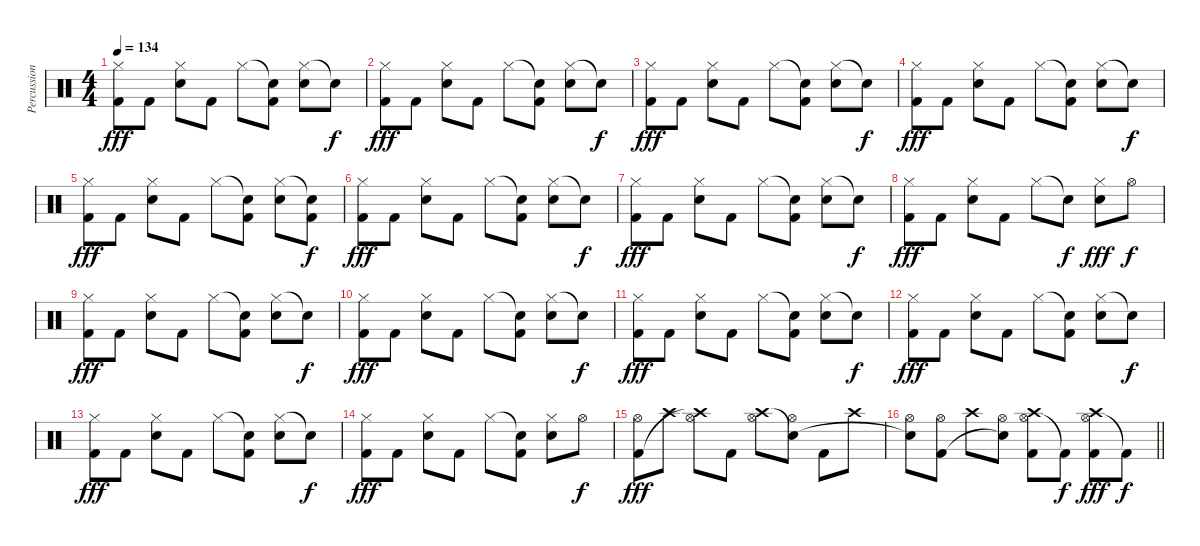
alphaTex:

\track ("Percussion" "Percussion") {instrument percussion}
\staff {score}
\articulation defaults
\ts (4 4)
\tempo 134
\clef neutral
\ks c
("Hi-Hat (closed)" "Kick (hit) 2").8{dy fff} "Kick (hit) 2".8 ("Hi-Hat (closed)" "Snare (hit) 2").8 "Kick (hit) 2".8 "Hi-Hat (closed)".8 ("Snare (hit)"{t} "Kick (hit) 2").8 ("Hi-Hat (closed)" "Snare (hit) 2").8 "Snare (hit)"{t}.8{dy f} |
("Hi-Hat (closed)" "Kick (hit) 2").8{dy fff} "Kick (hit) 2".8 ("Hi-Hat (closed)" "Snare (hit) 2").8 "Kick (hit) 2".8 "Hi-Hat (closed)".8 ("Snare (hit)"{t} "Kick (hit) 2").8 ("Hi-Hat (closed)" "Snare (hit) 2").8 "Snare (hit)"{t}.8{dy f} |
("Hi-Hat (closed)" "Kick (hit) 2").8{dy fff} "Kick (hit) 2".8 ("Hi-Hat (closed)" "Snare (hit) 2").8 "Kick (hit) 2".8 "Hi-Hat (closed)".8 ("Snare (hit)"{t} "Kick (hit) 2").8 ("Hi-Hat (closed)" "Snare (hit) 2").8 "Snare (hit)"{t}.8{dy f} |
("Hi-Hat (closed)" "Kick (hit) 2").8{dy fff} "Kick (hit) 2".8 ("Hi-Hat (closed)" "Snare (hit) 2").8 "Kick (hit) 2".8 "Hi-Hat (closed)".8 ("Snare (hit)"{t} "Kick (hit) 2").8 ("Hi-Hat (closed)" "Snare (hit) 2").8 "Snare (hit)"{t}.8{dy f} |
("Hi-Hat (closed)" "Kick (hit) 2").8{dy fff} "Kick (hit) 2".8 ("Hi-Hat (closed)" "Snare (hit) 2").8 "Kick (hit) 2".8 "Hi-Hat (closed)".8 ("Snare (hit)"{t} "Kick (hit) 2").8 ("Hi-Hat (closed)" "Snare (hit) 2").8 ("Snare (hit)"{t} "Kick (hit) 2").8{dy f} |
("Hi-Hat (closed)" "Kick (hit) 2").8{dy fff} "Kick (hit) 2".8 ("Hi-Hat (closed)" "Snare (hit) 2").8 "Kick (hit) 2".8 "Hi-Hat (closed)".8 ("Snare (hit)"{t} "Kick (hit) 2").8 ("Hi-Hat (closed)" "Snare (hit) 2").8 "Snare (hit)"{t}.8{dy f} |
("Hi-Hat (closed)" "Kick (hit) 2").8{dy fff} "Kick (hit) 2".8 ("Hi-Hat (closed)" "Snare (hit) 2").8 "Kick (hit) 2".8 "Hi-Hat (closed)".8 ("Snare (hit)"{t} "Kick (hit) 2").8 ("Hi-Hat (closed)" "Snare (hit) 2").8 "Snare (hit)"{t}.8{dy f} |
("Hi-Hat (closed)" "Kick (hit) 2").8{dy fff} "Kick (hit) 2".8 ("Hi-Hat (closed)" "Snare (hit) 2").8 "Kick (hit) 2".8 "Hi-Hat (closed)".8 "Snare (hit)"{t}.8{dy f} ("Hi-Hat (closed)" "Snare (hit) 2").8{dy fff} "Hi-Hat (open)".8{dy f} |
("Hi-Hat (closed)" "Kick (hit) 2").8{dy fff} "Kick (hit) 2".8 ("Hi-Hat (closed)" "Snare (hit) 2").8 "Kick (hit) 2".8 "Hi-Hat (closed)".8 ("Snare (hit)"{t} "Kick (hit) 2").8 ("Hi-Hat (closed)" "Snare (hit) 2").8 "Snare (hit)"{t}.8{dy f} |
("Hi-Hat (closed)" "Kick (hit) 2").8{dy fff} "Kick (hit) 2".8 ("Hi-Hat (closed)" "Snare (hit) 2").8 "Kick (hit) 2".8 "Hi-Hat (closed)".8 ("Snare (hit)"{t} "Kick (hit) 2").8 ("Hi-Hat (closed)" "Snare (hit) 2").8 "Snare (hit)"{t}.8{dy f} |
("Hi-Hat (closed)" "Kick (hit) 2").8{dy fff} "Kick (hit) 2".8 ("Hi-Hat (closed)" "Snare (hit) 2").8 "Kick (hit) 2".8 "Hi-Hat (closed)".8 ("Snare (hit)"{t} "Kick (hit) 2").8 ("Hi-Hat (closed)" "Snare (hit) 2").8 "Snare (hit)"{t}.8{dy f} |
("Hi-Hat (closed)" "Kick (hit) 2").8{dy fff} "Kick (hit) 2".8 ("Hi-Hat (closed)" "Snare (hit) 2").8 "Kick (hit) 2".8 "Hi-Hat (closed)".8 ("Snare (hit)"{t} "Kick (hit) 2").8 ("Hi-Hat (closed)" "Snare (hit) 2").8 "Snare (hit)"{t}.8{dy f} |
("Hi-Hat (closed)" "Kick (hit) 2").8{dy fff} "Kick (hit) 2".8 ("Hi-Hat (closed)" "Snare (hit) 2").8 "Kick (hit) 2".8 "Hi-Hat (closed)".8 ("Snare (hit)"{t} "Kick (hit) 2").8 ("Hi-Hat (closed)" "Snare (hit) 2").8 "Snare (hit)"{t}.8{dy f} |
("Hi-Hat (closed)" "Kick (hit) 2").8{dy fff} "Kick (hit) 2".8 ("Hi-Hat (closed)" "Snare (hit) 2").8 "Kick (hit) 2".8 "Hi-Hat (closed)".8 ("Snare (hit)"{t} "Kick (hit) 2").8 ("Hi-Hat (closed)" "Snare (hit) 2").8 "Hi-Hat (open)".8{dy f} |
("Hi-Hat (open)" "Kick (hit) 2").8{dy fff} "Crash high (hit)".8 ("Hi-Hat (open)" "Crash high (hit)"{t}).8 "Kick (hit) 2".8 ("Hi-Hat (open)" "Crash high (hit)").8 ("Hi-Hat (open)" "Snare (hit)"{t}).8 "Kick (hit) 2".8 "Crash high (hit)".8 |
\barLineRight lightlight
("Hi-Hat (open)" "Snare (hit)"{t}).8 ("Hi-Hat (open)" "Kick (hit) 2").8 "Crash high (hit)".8 ("Hi-Hat (open)" "Snare (hit)"{t}).8 ("Hi-Hat (open)" "Crash high (hit)" "Kick (hit) 2").8 "Kick (hit) 2"{t}.8{dy f} ("Hi-Hat (open)" "Crash high (hit)" "Kick (hit) 2").8{dy fff} "Kick (hit) 2"{t}.8{dy f}
